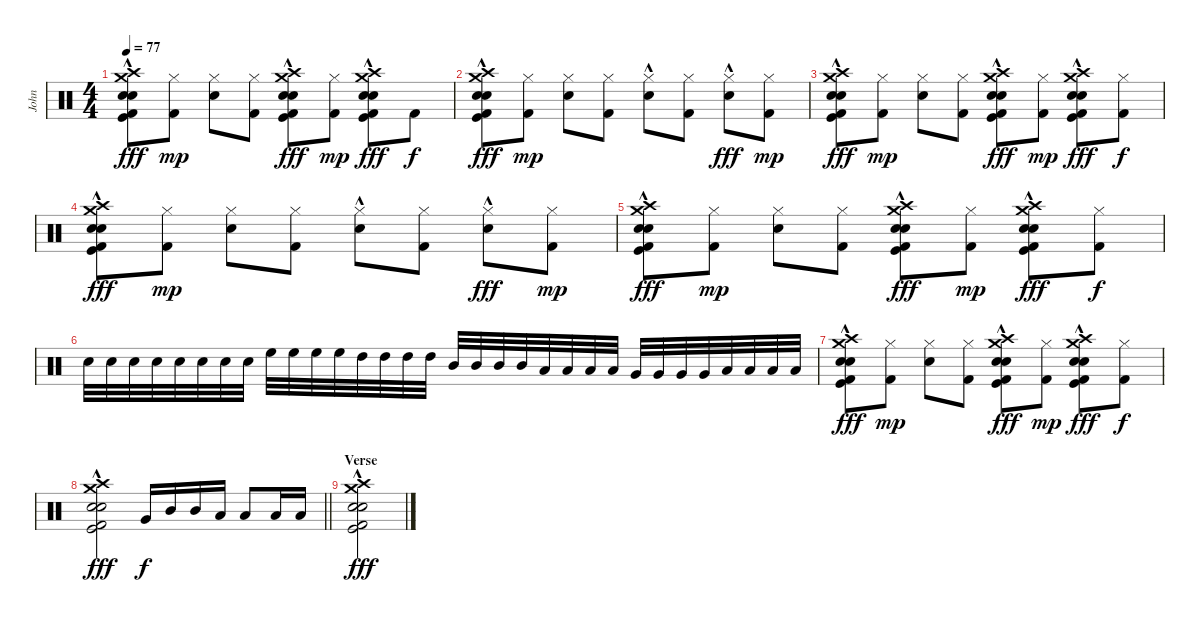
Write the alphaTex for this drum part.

\track ("John" "John") {instrument percussion}
\staff {score}
\articulation defaults
\ts (4 4)
\tempo 77
\clef neutral
\ks c
("Crash medium (hit)"{hac} "Crash high (hit)"{hac} "Kick (hit)"{hac} "Snare (hit) 2"{hac} "Electric Snare (hit)"{hac} "Kick (hit) 2"{hac}).8{dy fff} ("Hi-Hat (closed)" "Kick (hit) 2").8{dy mp} ("Hi-Hat (closed)" "Electric Snare (hit)").8 ("Hi-Hat (closed)" "Kick (hit) 2").8 ("Crash medium (hit)"{hac} "Crash high (hit)"{hac} "Kick (hit)"{hac} "Snare (hit) 2"{hac} "Electric Snare (hit)"{hac} "Kick (hit) 2"{hac}).8{dy fff} ("Hi-Hat (closed)" "Kick (hit) 2").8{dy mp} ("Crash medium (hit)"{hac} "Crash high (hit)"{hac} "Kick (hit)"{hac} "Snare (hit) 2"{hac} "Electric Snare (hit)"{hac} "Kick (hit) 2"{hac}).8{dy fff} "Kick (hit) 2".8{dy f} |
("Crash medium (hit)"{hac} "Crash high (hit)"{hac} "Kick (hit)"{hac} "Snare (hit) 2"{hac} "Electric Snare (hit)"{hac} "Kick (hit) 2"{hac}).8{dy fff} ("Hi-Hat (closed)" "Kick (hit) 2").8{dy mp} ("Hi-Hat (closed)" "Electric Snare (hit)").8 ("Hi-Hat (closed)" "Kick (hit) 2").8 ("Hi-Hat (closed)"{hac} "Electric Snare (hit)"{hac}).8 ("Hi-Hat (closed)" "Kick (hit) 2").8 ("Hi-Hat (closed)"{hac} "Electric Snare (hit)"{hac}).8{dy fff} ("Hi-Hat (closed)" "Kick (hit) 2").8{dy mp} |
("Crash medium (hit)"{hac} "Crash high (hit)"{hac} "Kick (hit)"{hac} "Snare (hit) 2"{hac} "Electric Snare (hit)"{hac} "Kick (hit) 2"{hac}).8{dy fff} ("Hi-Hat (closed)" "Kick (hit) 2").8{dy mp} ("Hi-Hat (closed)" "Electric Snare (hit)").8 ("Hi-Hat (closed)" "Kick (hit) 2").8 ("Crash medium (hit)"{hac} "Crash high (hit)"{hac} "Kick (hit)"{hac} "Snare (hit) 2"{hac} "Electric Snare (hit)"{hac} "Kick (hit) 2"{hac}).8{dy fff} ("Hi-Hat (closed)" "Kick (hit) 2").8{dy mp} ("Crash medium (hit)"{hac} "Crash high (hit)"{hac} "Kick (hit)"{hac} "Snare (hit) 2"{hac} "Electric Snare (hit)"{hac} "Kick (hit) 2"{hac}).8{dy fff} ("Hi-Hat (closed)" "Kick (hit) 2").8{dy f} |
("Crash medium (hit)"{hac} "Crash high (hit)"{hac} "Kick (hit)"{hac} "Snare (hit) 2"{hac} "Electric Snare (hit)"{hac} "Kick (hit) 2"{hac}).8{dy fff} ("Hi-Hat (closed)" "Kick (hit) 2").8{dy mp} ("Hi-Hat (closed)" "Electric Snare (hit)").8 ("Hi-Hat (closed)" "Kick (hit) 2").8 ("Hi-Hat (closed)"{hac} "Electric Snare (hit)"{hac}).8 ("Hi-Hat (closed)" "Kick (hit) 2").8 ("Hi-Hat (closed)"{hac} "Electric Snare (hit)"{hac}).8{dy fff} ("Hi-Hat (closed)" "Kick (hit) 2").8{dy mp} |
("Crash medium (hit)"{hac} "Crash high (hit)"{hac} "Kick (hit)"{hac} "Snare (hit) 2"{hac} "Electric Snare (hit)"{hac} "Kick (hit) 2"{hac}).8{dy fff} ("Hi-Hat (closed)" "Kick (hit) 2").8{dy mp} ("Hi-Hat (closed)" "Electric Snare (hit)").8 ("Hi-Hat (closed)" "Kick (hit) 2").8 ("Crash medium (hit)"{hac} "Crash high (hit)"{hac} "Kick (hit)"{hac} "Snare (hit) 2"{hac} "Electric Snare (hit)"{hac} "Kick (hit) 2"{hac}).8{dy fff} ("Hi-Hat (closed)" "Kick (hit) 2").8{dy mp} ("Crash medium (hit)"{hac} "Crash high (hit)"{hac} "Kick (hit)"{hac} "Snare (hit) 2"{hac} "Electric Snare (hit)"{hac} "Kick (hit) 2"{hac}).8{dy fff} ("Hi-Hat (closed)" "Kick (hit) 2").8{dy f} |
"Electric Snare (hit)".32 "Electric Snare (hit)".32 "Electric Snare (hit)".32 "Electric Snare (hit)".32 "Electric Snare (hit)".32 "Electric Snare (hit)".32 "Electric Snare (hit)".32 "Electric Snare (hit)".32 "High Floor Tom (hit)".32 "High Floor Tom (hit)".32 "High Floor Tom (hit)".32 "High Floor Tom (hit)".32 "High Tom (hit)".32 "High Tom (hit)".32 "High Tom (hit)".32 "High Tom (hit)".32 "Mid Tom (hit)".32 "Mid Tom (hit)".32 "Mid Tom (hit)".32 "Mid Tom (hit)".32 "Low Tom (hit)".32 "Low Tom (hit)".32 "Low Tom (hit)".32 "Low Tom (hit)".32 "Very Low Tom (hit)".32 "Very Low Tom (hit)".32 "Very Low Tom (hit)".32 "Very Low Tom (hit)".32 "Low Floor Tom (hit)".32 "Low Floor Tom (hit)".32 "Low Floor Tom (hit)".32 "Low Floor Tom (hit)".32 |
("Crash medium (hit)"{hac} "Crash high (hit)"{hac} "Kick (hit)"{hac} "Snare (hit) 2"{hac} "Electric Snare (hit)"{hac} "Kick (hit) 2"{hac}).8{dy fff} ("Hi-Hat (closed)" "Kick (hit) 2").8{dy mp} ("Hi-Hat (closed)" "Electric Snare (hit)").8 ("Hi-Hat (closed)" "Kick (hit) 2").8 ("Crash medium (hit)"{hac} "Crash high (hit)"{hac} "Kick (hit)"{hac} "Snare (hit) 2"{hac} "Electric Snare (hit)"{hac} "Kick (hit) 2"{hac}).8{dy fff} ("Hi-Hat (closed)" "Kick (hit) 2").8{dy mp} ("Crash medium (hit)"{hac} "Crash high (hit)"{hac} "Kick (hit)"{hac} "Snare (hit) 2"{hac} "Electric Snare (hit)"{hac} "Kick (hit) 2"{hac}).8{dy fff} ("Hi-Hat (closed)" "Kick (hit) 2").8{dy f} |
\barLineRight lightlight
("Crash medium (hit)"{hac} "Crash high (hit)"{hac} "Kick (hit)"{hac} "Snare (hit) 2"{hac} "Electric Snare (hit)"{hac} "Kick (hit) 2"{hac}).2{dy fff} "Very Low Tom (hit)".16{dy f} "Mid Tom (hit)".16 "Mid Tom (hit)".16 "Low Tom (hit)".16 "Low Tom (hit)".8 "Low Floor Tom (hit)".16 "Low Floor Tom (hit)".16 |
\section ("" "Verse")
("Crash medium (hit)"{hac} "Crash high (hit)"{hac} "Kick (hit)"{hac} "Snare (hit) 2"{hac} "Electric Snare (hit)"{hac} "Kick (hit) 2"{hac}).2{dy fff}
